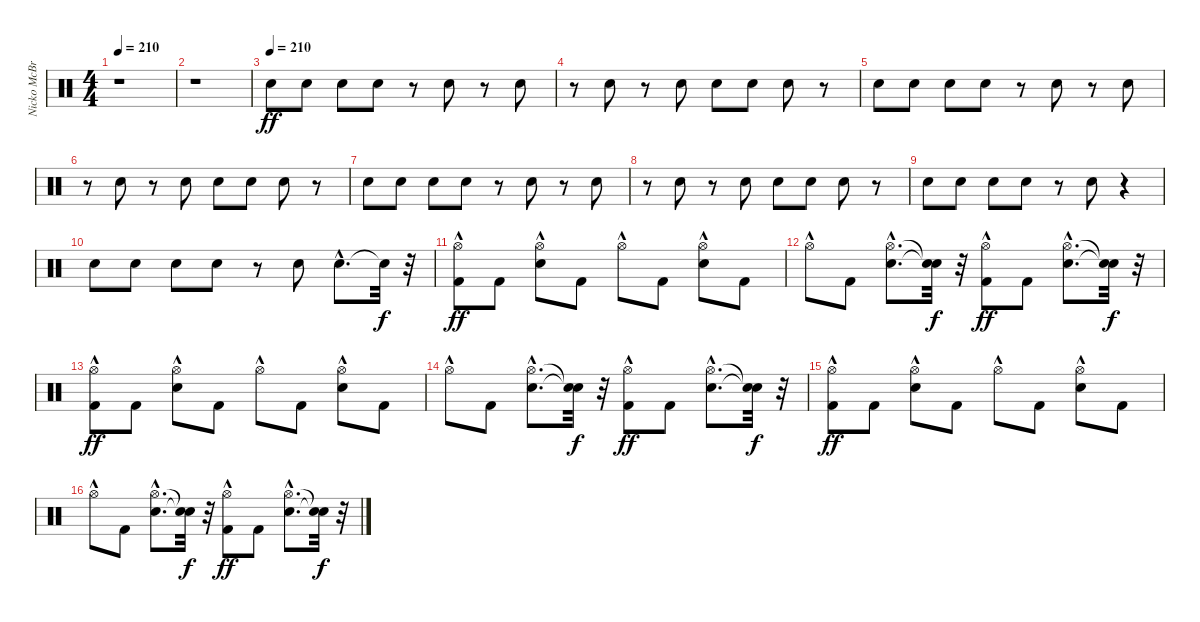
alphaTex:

\track ("Nicko McBrain" "Nicko McBr") {instrument percussion}
\staff {score}
\articulation defaults
\ts (4 4)
\tempo 210
\clef neutral
\ks c
r.1{dy ff} |
r.1 |
\tempo (210)
"Snare (hit) 2".8 "Snare (hit) 2".8 "Snare (hit) 2".8 "Snare (hit) 2".8 r.8 "Snare (hit) 2".8 r.8 "Snare (hit) 2".8 |
r.8 "Snare (hit) 2".8 r.8 "Snare (hit) 2".8 "Snare (hit) 2".8 "Snare (hit) 2".8 "Snare (hit) 2".8 r.8 |
"Snare (hit) 2".8 "Snare (hit) 2".8 "Snare (hit) 2".8 "Snare (hit) 2".8 r.8 "Snare (hit) 2".8 r.8 "Snare (hit) 2".8 |
r.8 "Snare (hit) 2".8 r.8 "Snare (hit) 2".8 "Snare (hit) 2".8 "Snare (hit) 2".8 "Snare (hit) 2".8 r.8 |
"Snare (hit) 2".8 "Snare (hit) 2".8 "Snare (hit) 2".8 "Snare (hit) 2".8 r.8 "Snare (hit) 2".8 r.8 "Snare (hit) 2".8 |
r.8 "Snare (hit) 2".8 r.8 "Snare (hit) 2".8 "Snare (hit) 2".8 "Snare (hit) 2".8 "Snare (hit) 2".8 r.8 |
"Snare (hit) 2".8 "Snare (hit) 2".8 "Snare (hit) 2".8 "Snare (hit) 2".8 r.8 "Snare (hit) 2".8 r.4 |
"Snare (hit) 2".8 "Snare (hit) 2".8 "Snare (hit) 2".8 "Snare (hit) 2".8 r.8 "Snare (hit) 2".8 "Snare (hit) 2"{hac}.8{d} "Snare (hit)"{t}.32{dy f} r.32 |
("Kick (hit) 2" "Hi-Hat (open)"{hac}).8{dy ff} "Kick (hit) 2".8 ("Snare (hit) 2" "Hi-Hat (open)"{hac}).8 "Kick (hit) 2".8 "Hi-Hat (open)"{hac}.8 "Kick (hit) 2".8 ("Snare (hit) 2" "Hi-Hat (open)"{hac}).8 "Kick (hit) 2".8 |
"Hi-Hat (open)"{hac}.8 "Kick (hit) 2".8 ("Snare (hit) 2"{hac} "Hi-Hat (open)"{hac}).8{d} ("Snare (hit)"{t} "Snare (hit)"{t}).32{dy f} r.32 ("Kick (hit) 2" "Hi-Hat (open)"{hac}).8{dy ff} "Kick (hit) 2".8 ("Snare (hit) 2"{hac} "Hi-Hat (open)"{hac}).8{d} ("Snare (hit)"{t} "Snare (hit)"{t}).32{dy f} r.32 |
("Kick (hit) 2" "Hi-Hat (open)"{hac}).8{dy ff} "Kick (hit) 2".8 ("Snare (hit) 2" "Hi-Hat (open)"{hac}).8 "Kick (hit) 2".8 "Hi-Hat (open)"{hac}.8 "Kick (hit) 2".8 ("Snare (hit) 2" "Hi-Hat (open)"{hac}).8 "Kick (hit) 2".8 |
"Hi-Hat (open)"{hac}.8 "Kick (hit) 2".8 ("Snare (hit) 2"{hac} "Hi-Hat (open)"{hac}).8{d} ("Snare (hit)"{t} "Snare (hit)"{t}).32{dy f} r.32 ("Kick (hit) 2" "Hi-Hat (open)"{hac}).8{dy ff} "Kick (hit) 2".8 ("Snare (hit) 2"{hac} "Hi-Hat (open)"{hac}).8{d} ("Snare (hit)"{t} "Snare (hit)"{t}).32{dy f} r.32 |
("Kick (hit) 2" "Hi-Hat (open)"{hac}).8{dy ff} "Kick (hit) 2".8 ("Snare (hit) 2" "Hi-Hat (open)"{hac}).8 "Kick (hit) 2".8 "Hi-Hat (open)"{hac}.8 "Kick (hit) 2".8 ("Snare (hit) 2" "Hi-Hat (open)"{hac}).8 "Kick (hit) 2".8 |
"Hi-Hat (open)"{hac}.8 "Kick (hit) 2".8 ("Snare (hit) 2"{hac} "Hi-Hat (open)"{hac}).8{d} ("Snare (hit)"{t} "Snare (hit)"{t}).32{dy f} r.32 ("Kick (hit) 2" "Hi-Hat (open)"{hac}).8{dy ff} "Kick (hit) 2".8 ("Snare (hit) 2"{hac} "Hi-Hat (open)"{hac}).8{d} ("Snare (hit)"{t} "Snare (hit)"{t}).32{dy f} r.32
